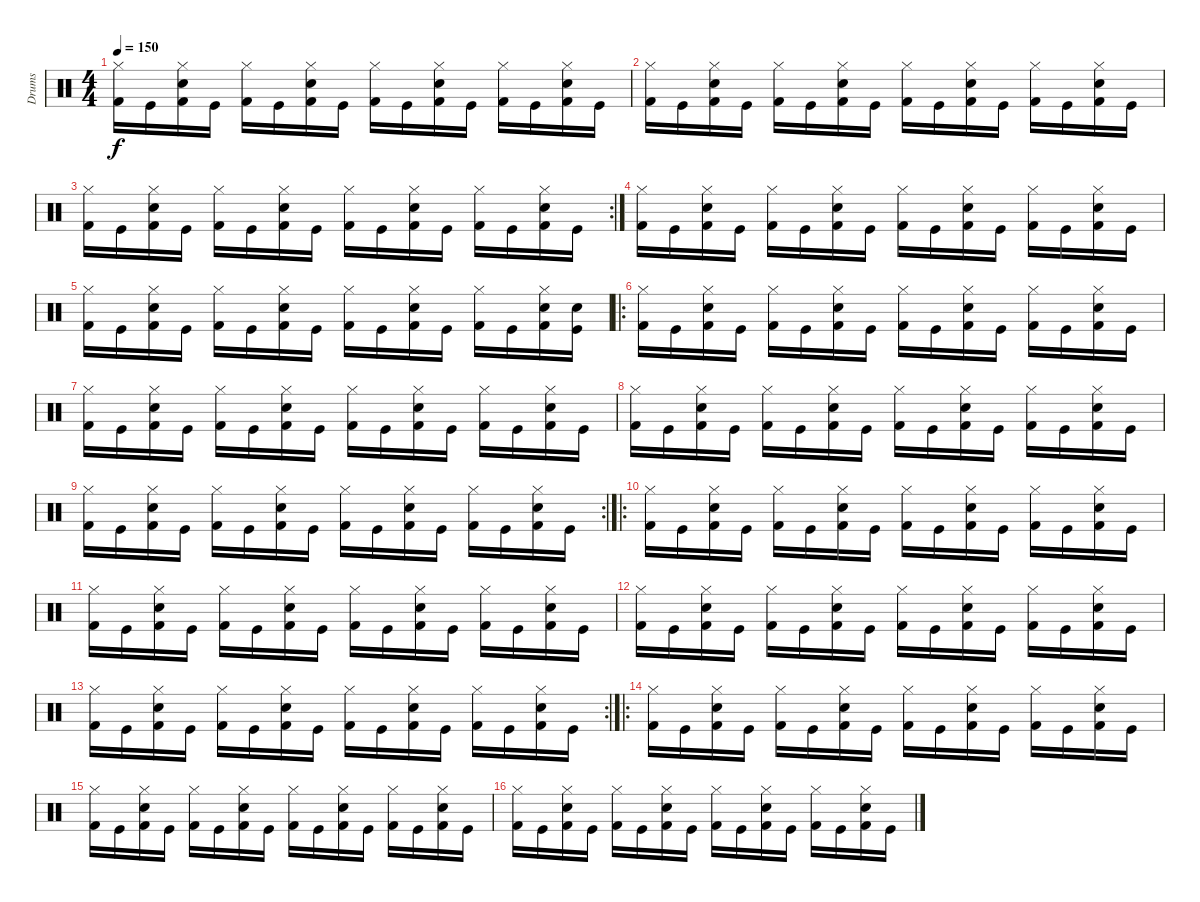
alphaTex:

\track ("Drums" "Drums") {instrument percussion}
\staff {score}
\articulation defaults
\ts (4 4)
\tempo 150
\clef neutral
\ks c
("Hi-Hat (closed)" "Kick (hit) 2").16{dy f} "Kick (hit)".16 ("Hi-Hat (closed)" "Snare (hit) 2" "Kick (hit) 2").16 "Kick (hit)".16 ("Hi-Hat (closed)" "Kick (hit) 2").16 "Kick (hit)".16 ("Hi-Hat (closed)" "Snare (hit) 2" "Kick (hit) 2").16 "Kick (hit)".16 ("Hi-Hat (closed)" "Kick (hit) 2").16 "Kick (hit)".16 ("Hi-Hat (closed)" "Snare (hit) 2" "Kick (hit) 2").16 "Kick (hit)".16 ("Hi-Hat (closed)" "Kick (hit) 2").16 "Kick (hit)".16 ("Hi-Hat (closed)" "Snare (hit) 2" "Kick (hit) 2").16 "Kick (hit)".16 |
("Hi-Hat (closed)" "Kick (hit) 2").16 "Kick (hit)".16 ("Hi-Hat (closed)" "Snare (hit) 2" "Kick (hit) 2").16 "Kick (hit)".16 ("Hi-Hat (closed)" "Kick (hit) 2").16 "Kick (hit)".16 ("Hi-Hat (closed)" "Snare (hit) 2" "Kick (hit) 2").16 "Kick (hit)".16 ("Hi-Hat (closed)" "Kick (hit) 2").16 "Kick (hit)".16 ("Hi-Hat (closed)" "Snare (hit) 2" "Kick (hit) 2").16 "Kick (hit)".16 ("Hi-Hat (closed)" "Kick (hit) 2").16 "Kick (hit)".16 ("Hi-Hat (closed)" "Snare (hit) 2" "Kick (hit) 2").16 "Kick (hit)".16 |
\rc 2
("Hi-Hat (closed)" "Kick (hit) 2").16 "Kick (hit)".16 ("Hi-Hat (closed)" "Snare (hit) 2" "Kick (hit) 2").16 "Kick (hit)".16 ("Hi-Hat (closed)" "Kick (hit) 2").16 "Kick (hit)".16 ("Hi-Hat (closed)" "Snare (hit) 2" "Kick (hit) 2").16 "Kick (hit)".16 ("Hi-Hat (closed)" "Kick (hit) 2").16 "Kick (hit)".16 ("Hi-Hat (closed)" "Snare (hit) 2" "Kick (hit) 2").16 "Kick (hit)".16 ("Hi-Hat (closed)" "Kick (hit) 2").16 "Kick (hit)".16 ("Hi-Hat (closed)" "Snare (hit) 2" "Kick (hit) 2").16 "Kick (hit)".16 |
("Hi-Hat (closed)" "Kick (hit) 2").16 "Kick (hit)".16 ("Hi-Hat (closed)" "Snare (hit) 2" "Kick (hit) 2").16 "Kick (hit)".16 ("Hi-Hat (closed)" "Kick (hit) 2").16 "Kick (hit)".16 ("Hi-Hat (closed)" "Snare (hit) 2" "Kick (hit) 2").16 "Kick (hit)".16 ("Hi-Hat (closed)" "Kick (hit) 2").16 "Kick (hit)".16 ("Hi-Hat (closed)" "Snare (hit) 2" "Kick (hit) 2").16 "Kick (hit)".16 ("Hi-Hat (closed)" "Kick (hit) 2").16 "Kick (hit)".16 ("Hi-Hat (closed)" "Snare (hit) 2" "Kick (hit) 2").16 "Kick (hit)".16 |
("Hi-Hat (closed)" "Kick (hit) 2").16 "Kick (hit)".16 ("Hi-Hat (closed)" "Snare (hit) 2" "Kick (hit) 2").16 "Kick (hit)".16 ("Hi-Hat (closed)" "Kick (hit) 2").16 "Kick (hit)".16 ("Hi-Hat (closed)" "Snare (hit) 2" "Kick (hit) 2").16 "Kick (hit)".16 ("Hi-Hat (closed)" "Kick (hit) 2").16 "Kick (hit)".16 ("Hi-Hat (closed)" "Snare (hit) 2" "Kick (hit) 2").16 "Kick (hit)".16 ("Hi-Hat (closed)" "Kick (hit) 2").16 "Kick (hit)".16 ("Hi-Hat (closed)" "Snare (hit) 2" "Kick (hit) 2").16 ("Snare (hit) 2" "Kick (hit)").16 |
\ro
("Hi-Hat (closed)" "Kick (hit) 2").16 "Kick (hit)".16 ("Hi-Hat (closed)" "Snare (hit) 2" "Kick (hit) 2").16 "Kick (hit)".16 ("Hi-Hat (closed)" "Kick (hit) 2").16 "Kick (hit)".16 ("Hi-Hat (closed)" "Snare (hit) 2" "Kick (hit) 2").16 "Kick (hit)".16 ("Hi-Hat (closed)" "Kick (hit) 2").16 "Kick (hit)".16 ("Hi-Hat (closed)" "Snare (hit) 2" "Kick (hit) 2").16 "Kick (hit)".16 ("Hi-Hat (closed)" "Kick (hit) 2").16 "Kick (hit)".16 ("Hi-Hat (closed)" "Snare (hit) 2" "Kick (hit) 2").16 "Kick (hit)".16 |
("Hi-Hat (closed)" "Kick (hit) 2").16 "Kick (hit)".16 ("Hi-Hat (closed)" "Snare (hit) 2" "Kick (hit) 2").16 "Kick (hit)".16 ("Hi-Hat (closed)" "Kick (hit) 2").16 "Kick (hit)".16 ("Hi-Hat (closed)" "Snare (hit) 2" "Kick (hit) 2").16 "Kick (hit)".16 ("Hi-Hat (closed)" "Kick (hit) 2").16 "Kick (hit)".16 ("Hi-Hat (closed)" "Snare (hit) 2" "Kick (hit) 2").16 "Kick (hit)".16 ("Hi-Hat (closed)" "Kick (hit) 2").16 "Kick (hit)".16 ("Hi-Hat (closed)" "Snare (hit) 2" "Kick (hit) 2").16 "Kick (hit)".16 |
("Hi-Hat (closed)" "Kick (hit) 2").16 "Kick (hit)".16 ("Hi-Hat (closed)" "Snare (hit) 2" "Kick (hit) 2").16 "Kick (hit)".16 ("Hi-Hat (closed)" "Kick (hit) 2").16 "Kick (hit)".16 ("Hi-Hat (closed)" "Snare (hit) 2" "Kick (hit) 2").16 "Kick (hit)".16 ("Hi-Hat (closed)" "Kick (hit) 2").16 "Kick (hit)".16 ("Hi-Hat (closed)" "Snare (hit) 2" "Kick (hit) 2").16 "Kick (hit)".16 ("Hi-Hat (closed)" "Kick (hit) 2").16 "Kick (hit)".16 ("Hi-Hat (closed)" "Snare (hit) 2" "Kick (hit) 2").16 "Kick (hit)".16 |
\rc 2
("Hi-Hat (closed)" "Kick (hit) 2").16 "Kick (hit)".16 ("Hi-Hat (closed)" "Snare (hit) 2" "Kick (hit) 2").16 "Kick (hit)".16 ("Hi-Hat (closed)" "Kick (hit) 2").16 "Kick (hit)".16 ("Hi-Hat (closed)" "Snare (hit) 2" "Kick (hit) 2").16 "Kick (hit)".16 ("Hi-Hat (closed)" "Kick (hit) 2").16 "Kick (hit)".16 ("Hi-Hat (closed)" "Snare (hit) 2" "Kick (hit) 2").16 "Kick (hit)".16 ("Hi-Hat (closed)" "Kick (hit) 2").16 "Kick (hit)".16 ("Hi-Hat (closed)" "Snare (hit) 2" "Kick (hit) 2").16 "Kick (hit)".16 |
\ro
("Hi-Hat (closed)" "Kick (hit) 2").16 "Kick (hit)".16 ("Hi-Hat (closed)" "Snare (hit) 2" "Kick (hit) 2").16 "Kick (hit)".16 ("Hi-Hat (closed)" "Kick (hit) 2").16 "Kick (hit)".16 ("Hi-Hat (closed)" "Snare (hit) 2" "Kick (hit) 2").16 "Kick (hit)".16 ("Hi-Hat (closed)" "Kick (hit) 2").16 "Kick (hit)".16 ("Hi-Hat (closed)" "Snare (hit) 2" "Kick (hit) 2").16 "Kick (hit)".16 ("Hi-Hat (closed)" "Kick (hit) 2").16 "Kick (hit)".16 ("Hi-Hat (closed)" "Snare (hit) 2" "Kick (hit) 2").16 "Kick (hit)".16 |
("Hi-Hat (closed)" "Kick (hit) 2").16 "Kick (hit)".16 ("Hi-Hat (closed)" "Snare (hit) 2" "Kick (hit) 2").16 "Kick (hit)".16 ("Hi-Hat (closed)" "Kick (hit) 2").16 "Kick (hit)".16 ("Hi-Hat (closed)" "Snare (hit) 2" "Kick (hit) 2").16 "Kick (hit)".16 ("Hi-Hat (closed)" "Kick (hit) 2").16 "Kick (hit)".16 ("Hi-Hat (closed)" "Snare (hit) 2" "Kick (hit) 2").16 "Kick (hit)".16 ("Hi-Hat (closed)" "Kick (hit) 2").16 "Kick (hit)".16 ("Hi-Hat (closed)" "Snare (hit) 2" "Kick (hit) 2").16 "Kick (hit)".16 |
("Hi-Hat (closed)" "Kick (hit) 2").16 "Kick (hit)".16 ("Hi-Hat (closed)" "Snare (hit) 2" "Kick (hit) 2").16 "Kick (hit)".16 ("Hi-Hat (closed)" "Kick (hit) 2").16 "Kick (hit)".16 ("Hi-Hat (closed)" "Snare (hit) 2" "Kick (hit) 2").16 "Kick (hit)".16 ("Hi-Hat (closed)" "Kick (hit) 2").16 "Kick (hit)".16 ("Hi-Hat (closed)" "Snare (hit) 2" "Kick (hit) 2").16 "Kick (hit)".16 ("Hi-Hat (closed)" "Kick (hit) 2").16 "Kick (hit)".16 ("Hi-Hat (closed)" "Snare (hit) 2" "Kick (hit) 2").16 "Kick (hit)".16 |
\rc 2
("Hi-Hat (closed)" "Kick (hit) 2").16 "Kick (hit)".16 ("Hi-Hat (closed)" "Snare (hit) 2" "Kick (hit) 2").16 "Kick (hit)".16 ("Hi-Hat (closed)" "Kick (hit) 2").16 "Kick (hit)".16 ("Hi-Hat (closed)" "Snare (hit) 2" "Kick (hit) 2").16 "Kick (hit)".16 ("Hi-Hat (closed)" "Kick (hit) 2").16 "Kick (hit)".16 ("Hi-Hat (closed)" "Snare (hit) 2" "Kick (hit) 2").16 "Kick (hit)".16 ("Hi-Hat (closed)" "Kick (hit) 2").16 "Kick (hit)".16 ("Hi-Hat (closed)" "Snare (hit) 2" "Kick (hit) 2").16 "Kick (hit)".16 |
\ro
("Hi-Hat (closed)" "Kick (hit) 2").16 "Kick (hit)".16 ("Hi-Hat (closed)" "Snare (hit) 2" "Kick (hit) 2").16 "Kick (hit)".16 ("Hi-Hat (closed)" "Kick (hit) 2").16 "Kick (hit)".16 ("Hi-Hat (closed)" "Snare (hit) 2" "Kick (hit) 2").16 "Kick (hit)".16 ("Hi-Hat (closed)" "Kick (hit) 2").16 "Kick (hit)".16 ("Hi-Hat (closed)" "Snare (hit) 2" "Kick (hit) 2").16 "Kick (hit)".16 ("Hi-Hat (closed)" "Kick (hit) 2").16 "Kick (hit)".16 ("Hi-Hat (closed)" "Snare (hit) 2" "Kick (hit) 2").16 "Kick (hit)".16 |
("Hi-Hat (closed)" "Kick (hit) 2").16 "Kick (hit)".16 ("Hi-Hat (closed)" "Snare (hit) 2" "Kick (hit) 2").16 "Kick (hit)".16 ("Hi-Hat (closed)" "Kick (hit) 2").16 "Kick (hit)".16 ("Hi-Hat (closed)" "Snare (hit) 2" "Kick (hit) 2").16 "Kick (hit)".16 ("Hi-Hat (closed)" "Kick (hit) 2").16 "Kick (hit)".16 ("Hi-Hat (closed)" "Snare (hit) 2" "Kick (hit) 2").16 "Kick (hit)".16 ("Hi-Hat (closed)" "Kick (hit) 2").16 "Kick (hit)".16 ("Hi-Hat (closed)" "Snare (hit) 2" "Kick (hit) 2").16 "Kick (hit)".16 |
("Hi-Hat (closed)" "Kick (hit) 2").16 "Kick (hit)".16 ("Hi-Hat (closed)" "Snare (hit) 2" "Kick (hit) 2").16 "Kick (hit)".16 ("Hi-Hat (closed)" "Kick (hit) 2").16 "Kick (hit)".16 ("Hi-Hat (closed)" "Snare (hit) 2" "Kick (hit) 2").16 "Kick (hit)".16 ("Hi-Hat (closed)" "Kick (hit) 2").16 "Kick (hit)".16 ("Hi-Hat (closed)" "Snare (hit) 2" "Kick (hit) 2").16 "Kick (hit)".16 ("Hi-Hat (closed)" "Kick (hit) 2").16 "Kick (hit)".16 ("Hi-Hat (closed)" "Snare (hit) 2" "Kick (hit) 2").16 "Kick (hit)".16
